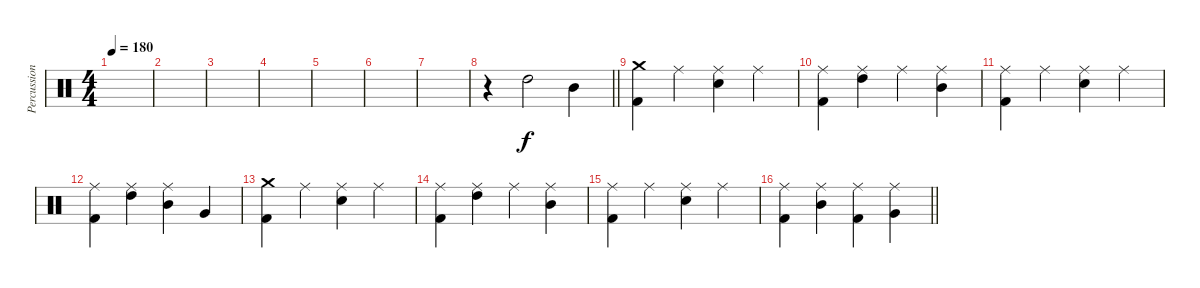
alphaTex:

\track ("Percussion" "Percussion") {instrument percussion}
\staff {score}
\articulation defaults
\ts (4 4)
\tempo 180
\clef neutral
\ks c
|
|
|
|
|
|
|
\barLineRight lightlight
r.4 "High Tom (hit)".2 "Mid Tom (hit)".4 |
("Kick (hit) 2" "Crash medium (hit)").4 "Ride (middle)".4 ("Snare (hit) 2" "Ride (middle)").4 "Ride (middle)".4 |
("Kick (hit) 2" "Ride (middle)").4 ("High Tom (hit)" "Ride (middle)").4 "Ride (middle)".4 ("Mid Tom (hit)" "Ride (middle)").4 |
("Kick (hit) 2" "Ride (middle)").4 "Ride (middle)".4 ("Snare (hit) 2" "Ride (middle)").4 "Ride (middle)".4 |
("Kick (hit) 2" "Ride (middle)").4 ("High Tom (hit)" "Ride (middle)").4 ("Mid Tom (hit)" "Ride (middle)").4 "Very Low Tom (hit)".4 |
("Kick (hit) 2" "Crash medium (hit)").4 "Ride (middle)".4 ("Snare (hit) 2" "Ride (middle)").4 "Ride (middle)".4 |
("Kick (hit) 2" "Ride (middle)").4 ("High Tom (hit)" "Ride (middle)").4 "Ride (middle)".4 ("Mid Tom (hit)" "Ride (middle)").4 |
("Kick (hit) 2" "Ride (middle)").4 "Ride (middle)".4 ("Snare (hit) 2" "Ride (middle)").4 "Ride (middle)".4 |
\barLineRight lightlight
("Kick (hit) 2" "Ride (middle)").4 ("Mid Tom (hit)" "Ride (middle)").4 ("Kick (hit) 2" "Ride (middle)").4 ("Very Low Tom (hit)" "Ride (middle)").4
